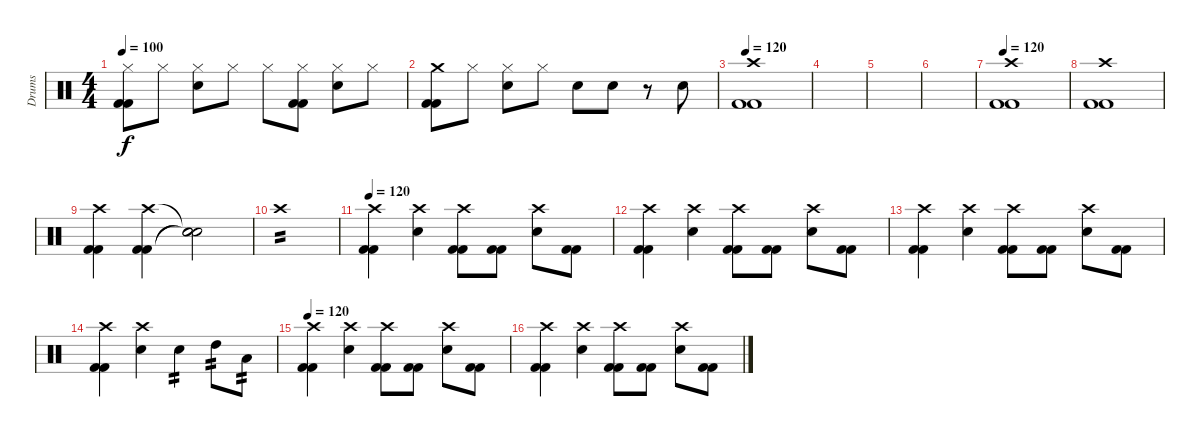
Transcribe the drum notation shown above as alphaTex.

\track ("Drums" "Drums") {instrument percussion}
\staff {score}
\articulation defaults
\ts (4 4)
\tempo 100
\clef neutral
\ks c
("Hi-Hat (closed)" "Kick (hit) 2" "Kick (hit) 2").8{dy f} "Hi-Hat (closed)".8 ("Electric Snare (hit)" "Hi-Hat (closed)").8 "Hi-Hat (closed)".8 "Hi-Hat (closed)".8 ("Kick (hit) 2" "Kick (hit) 2" "Hi-Hat (closed)").8 ("Hi-Hat (closed)" "Electric Snare (hit)").8 "Hi-Hat (closed)".8 |
("Crash medium (hit)" "Kick (hit) 2" "Kick (hit) 2").8 "Hi-Hat (closed)".8 ("Electric Snare (hit)" "Hi-Hat (closed)").8 "Hi-Hat (closed)".8 "Electric Snare (hit)".8 "Electric Snare (hit)".8 r.8 "Electric Snare (hit)".8 |
\tempo 120
("Crash high (hit)" "Kick (hit) 2" "Kick (hit) 2").1 |
|
|
|
\tempo 120
("Kick (hit) 2" "Kick (hit) 2" "Crash high (hit)").1 |
("Kick (hit) 2" "Kick (hit) 2" "Crash high (hit)").1 |
("Crash high (hit)" "Kick (hit) 2" "Kick (hit) 2").4 ("Kick (hit) 2" "Kick (hit) 2" "Crash high (hit)").4 ("Snare (hit)"{t} "Snare (hit)"{t} "Snare (hit)"{t}).2 |
"Crash high (hit)".1{tp 2} |
\tempo 120
("Crash high (hit)" "Kick (hit) 2" "Kick (hit) 2").4 ("Electric Snare (hit)" "Crash high (hit)").4 ("Kick (hit) 2" "Kick (hit) 2" "Crash high (hit)").8 ("Kick (hit) 2" "Kick (hit) 2").8 ("Electric Snare (hit)" "Crash high (hit)").8 ("Kick (hit) 2" "Kick (hit) 2").8 |
("Crash high (hit)" "Kick (hit) 2" "Kick (hit) 2").4 ("Electric Snare (hit)" "Crash high (hit)").4 ("Kick (hit) 2" "Kick (hit) 2" "Crash high (hit)").8 ("Kick (hit) 2" "Kick (hit) 2").8 ("Electric Snare (hit)" "Crash high (hit)").8 ("Kick (hit) 2" "Kick (hit) 2").8 |
("Crash high (hit)" "Kick (hit) 2" "Kick (hit) 2").4 ("Electric Snare (hit)" "Crash high (hit)").4 ("Kick (hit) 2" "Kick (hit) 2" "Crash high (hit)").8 ("Kick (hit) 2" "Kick (hit) 2").8 ("Electric Snare (hit)" "Crash high (hit)").8 ("Kick (hit) 2" "Kick (hit) 2").8 |
("Crash high (hit)" "Kick (hit) 2" "Kick (hit) 2").4 ("Electric Snare (hit)" "Crash high (hit)").4 "Electric Snare (hit)".4{tp 2} "High Tom (hit)".8{tp 2} "Low Tom (hit)".8{tp 2} |
\tempo 120
("Crash high (hit)" "Kick (hit) 2" "Kick (hit) 2").4 ("Electric Snare (hit)" "Crash high (hit)").4 ("Kick (hit) 2" "Kick (hit) 2" "Crash high (hit)").8 ("Kick (hit) 2" "Kick (hit) 2").8 ("Electric Snare (hit)" "Crash high (hit)").8 ("Kick (hit) 2" "Kick (hit) 2").8 |
("Crash high (hit)" "Kick (hit) 2" "Kick (hit) 2").4 ("Electric Snare (hit)" "Crash high (hit)").4 ("Kick (hit) 2" "Kick (hit) 2" "Crash high (hit)").8 ("Kick (hit) 2" "Kick (hit) 2").8 ("Electric Snare (hit)" "Crash high (hit)").8 ("Kick (hit) 2" "Kick (hit) 2").8
